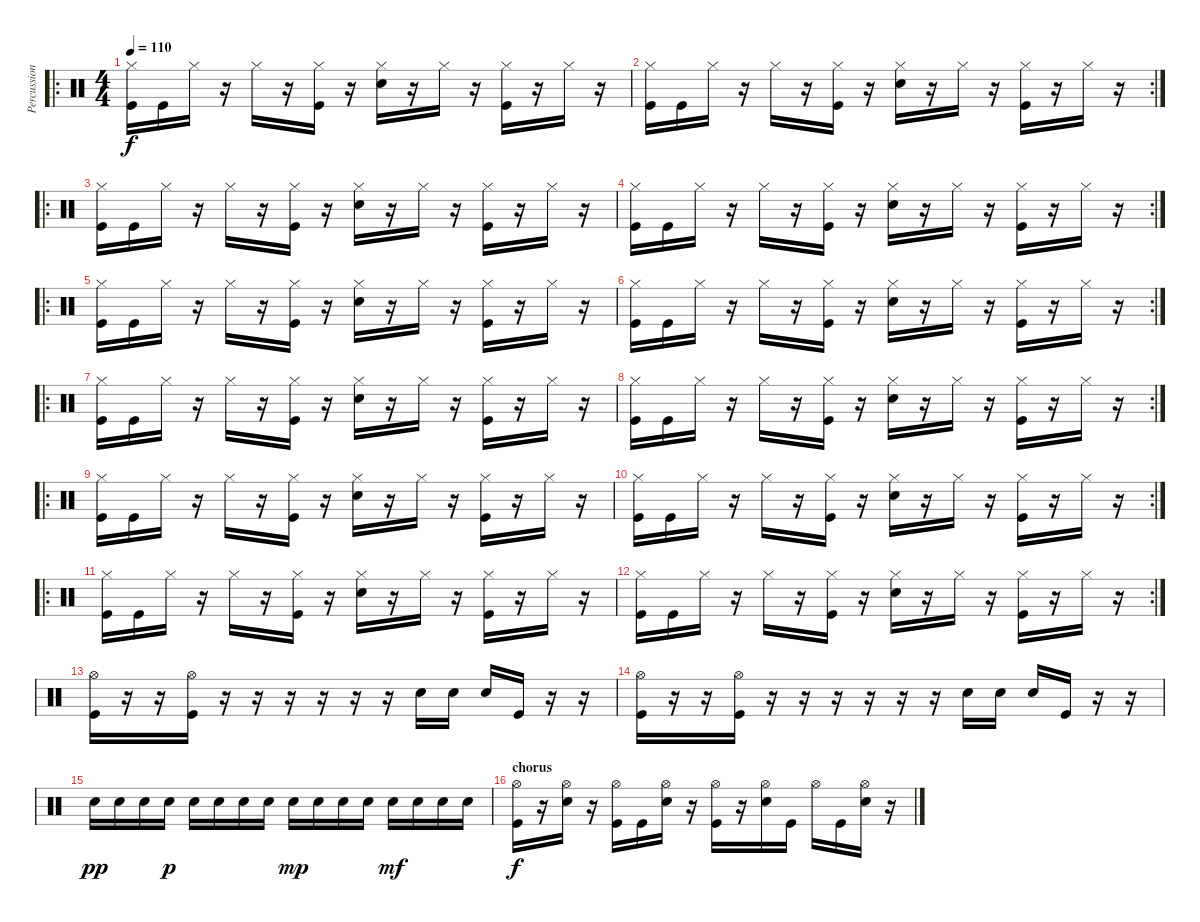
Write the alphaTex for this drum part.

\track ("Percussion" "Percussion") {instrument percussion}
\staff {score}
\articulation defaults
\ro
\ts (4 4)
\tempo 110
\clef neutral
\ks c
("Hi-Hat (closed)" "Kick (hit)").16{dy f} "Kick (hit)".16 "Hi-Hat (closed)".16 r.16 "Hi-Hat (closed)".16 r.16 ("Hi-Hat (closed)" "Kick (hit)").16 r.16 ("Hi-Hat (closed)" "Electric Snare (hit)").16 r.16 "Hi-Hat (closed)".16 r.16 ("Hi-Hat (closed)" "Kick (hit)").16 r.16 "Hi-Hat (closed)".16 r.16 |
\rc 2
("Hi-Hat (closed)" "Kick (hit)").16 "Kick (hit)".16 "Hi-Hat (closed)".16 r.16 "Hi-Hat (closed)".16 r.16 ("Hi-Hat (closed)" "Kick (hit)").16 r.16 ("Hi-Hat (closed)" "Electric Snare (hit)").16 r.16 "Hi-Hat (closed)".16 r.16 ("Hi-Hat (closed)" "Kick (hit)").16 r.16 "Hi-Hat (closed)".16 r.16 |
\ro
("Hi-Hat (closed)" "Kick (hit)").16 "Kick (hit)".16 "Hi-Hat (closed)".16 r.16 "Hi-Hat (closed)".16 r.16 ("Hi-Hat (closed)" "Kick (hit)").16 r.16 ("Hi-Hat (closed)" "Electric Snare (hit)").16 r.16 "Hi-Hat (closed)".16 r.16 ("Hi-Hat (closed)" "Kick (hit)").16 r.16 "Hi-Hat (closed)".16 r.16 |
\rc 2
("Hi-Hat (closed)" "Kick (hit)").16 "Kick (hit)".16 "Hi-Hat (closed)".16 r.16 "Hi-Hat (closed)".16 r.16 ("Hi-Hat (closed)" "Kick (hit)").16 r.16 ("Hi-Hat (closed)" "Electric Snare (hit)").16 r.16 "Hi-Hat (closed)".16 r.16 ("Hi-Hat (closed)" "Kick (hit)").16 r.16 "Hi-Hat (closed)".16 r.16 |
\ro
("Hi-Hat (closed)" "Kick (hit)").16 "Kick (hit)".16 "Hi-Hat (closed)".16 r.16 "Hi-Hat (closed)".16 r.16 ("Hi-Hat (closed)" "Kick (hit)").16 r.16 ("Hi-Hat (closed)" "Electric Snare (hit)").16 r.16 "Hi-Hat (closed)".16 r.16 ("Hi-Hat (closed)" "Kick (hit)").16 r.16 "Hi-Hat (closed)".16 r.16 |
\rc 2
("Hi-Hat (closed)" "Kick (hit)").16 "Kick (hit)".16 "Hi-Hat (closed)".16 r.16 "Hi-Hat (closed)".16 r.16 ("Hi-Hat (closed)" "Kick (hit)").16 r.16 ("Hi-Hat (closed)" "Electric Snare (hit)").16 r.16 "Hi-Hat (closed)".16 r.16 ("Hi-Hat (closed)" "Kick (hit)").16 r.16 "Hi-Hat (closed)".16 r.16 |
\ro
("Hi-Hat (closed)" "Kick (hit)").16 "Kick (hit)".16 "Hi-Hat (closed)".16 r.16 "Hi-Hat (closed)".16 r.16 ("Hi-Hat (closed)" "Kick (hit)").16 r.16 ("Hi-Hat (closed)" "Electric Snare (hit)").16 r.16 "Hi-Hat (closed)".16 r.16 ("Hi-Hat (closed)" "Kick (hit)").16 r.16 "Hi-Hat (closed)".16 r.16 |
\rc 2
("Hi-Hat (closed)" "Kick (hit)").16 "Kick (hit)".16 "Hi-Hat (closed)".16 r.16 "Hi-Hat (closed)".16 r.16 ("Hi-Hat (closed)" "Kick (hit)").16 r.16 ("Hi-Hat (closed)" "Electric Snare (hit)").16 r.16 "Hi-Hat (closed)".16 r.16 ("Hi-Hat (closed)" "Kick (hit)").16 r.16 "Hi-Hat (closed)".16 r.16 |
\ro
("Hi-Hat (closed)" "Kick (hit)").16 "Kick (hit)".16 "Hi-Hat (closed)".16 r.16 "Hi-Hat (closed)".16 r.16 ("Hi-Hat (closed)" "Kick (hit)").16 r.16 ("Hi-Hat (closed)" "Electric Snare (hit)").16 r.16 "Hi-Hat (closed)".16 r.16 ("Hi-Hat (closed)" "Kick (hit)").16 r.16 "Hi-Hat (closed)".16 r.16 |
\rc 2
("Hi-Hat (closed)" "Kick (hit)").16 "Kick (hit)".16 "Hi-Hat (closed)".16 r.16 "Hi-Hat (closed)".16 r.16 ("Hi-Hat (closed)" "Kick (hit)").16 r.16 ("Hi-Hat (closed)" "Electric Snare (hit)").16 r.16 "Hi-Hat (closed)".16 r.16 ("Hi-Hat (closed)" "Kick (hit)").16 r.16 "Hi-Hat (closed)".16 r.16 |
\ro
("Hi-Hat (closed)" "Kick (hit)").16 "Kick (hit)".16 "Hi-Hat (closed)".16 r.16 "Hi-Hat (closed)".16 r.16 ("Hi-Hat (closed)" "Kick (hit)").16 r.16 ("Hi-Hat (closed)" "Electric Snare (hit)").16 r.16 "Hi-Hat (closed)".16 r.16 ("Hi-Hat (closed)" "Kick (hit)").16 r.16 "Hi-Hat (closed)".16 r.16 |
\rc 2
("Hi-Hat (closed)" "Kick (hit)").16 "Kick (hit)".16 "Hi-Hat (closed)".16 r.16 "Hi-Hat (closed)".16 r.16 ("Hi-Hat (closed)" "Kick (hit)").16 r.16 ("Hi-Hat (closed)" "Electric Snare (hit)").16 r.16 "Hi-Hat (closed)".16 r.16 ("Hi-Hat (closed)" "Kick (hit)").16 r.16 "Hi-Hat (closed)".16 r.16 |
("Hi-Hat (open)" "Kick (hit)").16 r.16 r.16 ("Hi-Hat (open)" "Kick (hit)").16 r.16 r.16 r.16 r.16 r.16 r.16 "Electric Snare (hit)".16 "Electric Snare (hit)".16 "Electric Snare (hit)".16 "Kick (hit)".16 r.16 r.16 |
("Hi-Hat (open)" "Kick (hit)").16 r.16 r.16 ("Hi-Hat (open)" "Kick (hit)").16 r.16 r.16 r.16 r.16 r.16 r.16 "Electric Snare (hit)".16 "Electric Snare (hit)".16 "Electric Snare (hit)".16 "Kick (hit)".16 r.16 r.16 |
"Electric Snare (hit)".16{dy pp} "Electric Snare (hit)".16 "Electric Snare (hit)".16 "Electric Snare (hit)".16{dy p} "Electric Snare (hit)".16 "Electric Snare (hit)".16 "Electric Snare (hit)".16 "Electric Snare (hit)".16 "Electric Snare (hit)".16{dy mp} "Electric Snare (hit)".16 "Electric Snare (hit)".16 "Electric Snare (hit)".16 "Electric Snare (hit)".16{dy mf} "Electric Snare (hit)".16 "Electric Snare (hit)".16 "Electric Snare (hit)".16 |
\section ("" "chorus")
("Hi-Hat (open)" "Kick (hit)").16{dy f} r.16 ("Hi-Hat (open)" "Electric Snare (hit)").16 r.16 ("Hi-Hat (open)" "Kick (hit)").16 "Kick (hit)".16 ("Hi-Hat (open)" "Electric Snare (hit)").16 r.16 ("Hi-Hat (open)" "Kick (hit)").16 r.16 ("Hi-Hat (open)" "Electric Snare (hit)").16 "Kick (hit)".16 "Hi-Hat (open)".16 "Kick (hit)".16 ("Hi-Hat (open)" "Electric Snare (hit)").16 r.16
